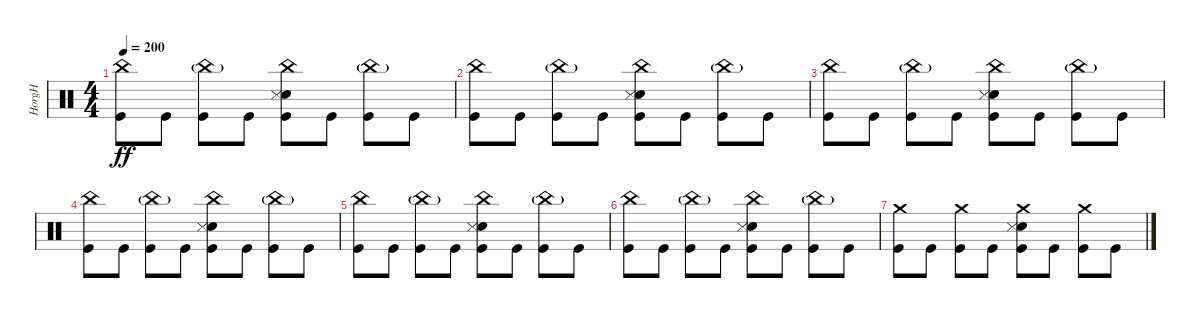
\track ("HorgH" "HorgH") {instrument percussion}
\staff {score}
\articulation defaults
\ts (4 4)
\tempo 200
\clef neutral
\ks c
("China (hit)" "Kick (hit)").8{dy ff} "Kick (hit)".8 ("China (hit)"{g} "Kick (hit)").8 "Kick (hit)".8 ("China (hit)" "Electric Snare (hit)" "Snare (side stick) 3" "Kick (hit)").8 "Kick (hit)".8 ("China (hit)"{g} "Kick (hit)").8 "Kick (hit)".8 |
("China (hit)" "Kick (hit)").8 "Kick (hit)".8 ("China (hit)"{g} "Kick (hit)").8 "Kick (hit)".8 ("China (hit)" "Electric Snare (hit)" "Snare (side stick) 3" "Kick (hit)").8 "Kick (hit)".8 ("China (hit)"{g} "Kick (hit)").8 "Kick (hit)".8 |
("China (hit)" "Kick (hit)").8 "Kick (hit)".8 ("China (hit)"{g} "Kick (hit)").8 "Kick (hit)".8 ("China (hit)" "Electric Snare (hit)" "Snare (side stick) 3" "Kick (hit)").8 "Kick (hit)".8 ("China (hit)"{g} "Kick (hit)").8 "Kick (hit)".8 |
("China (hit)" "Kick (hit)").8 "Kick (hit)".8 ("China (hit)"{g} "Kick (hit)").8 "Kick (hit)".8 ("China (hit)" "Electric Snare (hit)" "Snare (side stick) 3" "Kick (hit)").8 "Kick (hit)".8 ("China (hit)"{g} "Kick (hit)").8 "Kick (hit)".8 |
("China (hit)" "Kick (hit)").8 "Kick (hit)".8 ("China (hit)"{g} "Kick (hit)").8 "Kick (hit)".8 ("China (hit)" "Electric Snare (hit)" "Snare (side stick) 3" "Kick (hit)").8 "Kick (hit)".8 ("China (hit)"{g} "Kick (hit)").8 "Kick (hit)".8 |
("China (hit)" "Kick (hit)").8 "Kick (hit)".8 ("China (hit)"{g} "Kick (hit)").8 "Kick (hit)".8 ("China (hit)" "Electric Snare (hit)" "Snare (side stick) 3" "Kick (hit)").8 "Kick (hit)".8 ("China (hit)"{g} "Kick (hit)").8 "Kick (hit)".8 |
("Crash medium (hit)" "Kick (hit)").8 "Kick (hit)".8 ("Crash medium (hit)" "Kick (hit)").8 "Kick (hit)".8 ("Crash medium (hit)" "Electric Snare (hit)" "Snare (side stick) 3" "Kick (hit)").8 "Kick (hit)".8 ("Crash medium (hit)" "Kick (hit)").8 "Kick (hit)".8
